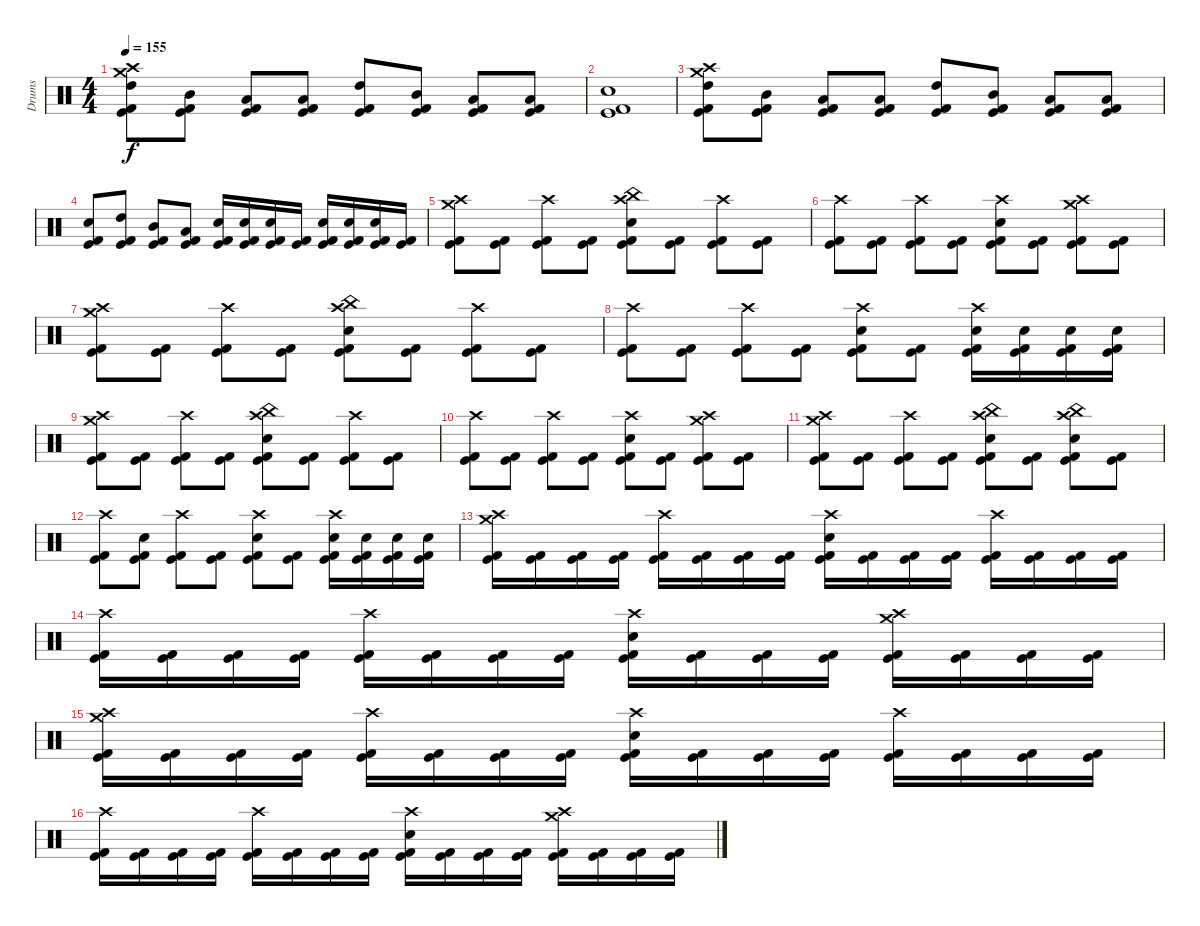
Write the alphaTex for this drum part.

\track ("Drums" "Drums") {instrument percussion}
\staff {score}
\articulation defaults
\ts (4 4)
\tempo 155
\clef neutral
\ks c
("Crash medium (hit)" "Crash high (hit)" "High Tom (hit)" "Kick (hit)" "Kick (hit) 2").8{dy f} ("Mid Tom (hit)" "Kick (hit)" "Kick (hit) 2").8 ("Low Tom (hit)" "Kick (hit)" "Kick (hit) 2").8 ("Low Floor Tom (hit)" "Kick (hit)" "Kick (hit) 2").8 ("High Tom (hit)" "Kick (hit)" "Kick (hit) 2").8 ("Mid Tom (hit)" "Kick (hit)" "Kick (hit) 2").8 ("Low Tom (hit)" "Kick (hit)" "Kick (hit) 2").8 ("Low Floor Tom (hit)" "Kick (hit)" "Kick (hit) 2").8 |
("Snare (hit) 2" "Kick (hit)" "Kick (hit) 2").1 |
("Crash medium (hit)" "Crash high (hit)" "High Tom (hit)" "Kick (hit)" "Kick (hit) 2").8 ("Mid Tom (hit)" "Kick (hit)" "Kick (hit) 2").8 ("Low Tom (hit)" "Kick (hit)" "Kick (hit) 2").8 ("Low Floor Tom (hit)" "Kick (hit)" "Kick (hit) 2").8 ("High Tom (hit)" "Kick (hit)" "Kick (hit) 2").8 ("Mid Tom (hit)" "Kick (hit)" "Kick (hit) 2").8 ("Low Tom (hit)" "Kick (hit)" "Kick (hit) 2").8 ("Low Floor Tom (hit)" "Kick (hit)" "Kick (hit) 2").8 |
("Snare (hit) 2" "Kick (hit)" "Kick (hit) 2").8 ("High Tom (hit)" "Kick (hit)" "Kick (hit) 2").8 ("Mid Tom (hit)" "Kick (hit)" "Kick (hit) 2").8 ("Low Tom (hit)" "Kick (hit)" "Kick (hit) 2").8 ("Snare (hit) 2" "Kick (hit)" "Kick (hit) 2").16 ("Snare (hit) 2" "Kick (hit)" "Kick (hit) 2").16 ("Snare (hit) 2" "Kick (hit)" "Kick (hit) 2").16 ("Kick (hit)" "Kick (hit) 2").16 ("Snare (hit) 2" "Kick (hit)" "Kick (hit) 2").16 ("Snare (hit) 2" "Kick (hit)" "Kick (hit) 2").16 ("Snare (hit) 2" "Kick (hit)" "Kick (hit) 2").16 ("Kick (hit)" "Kick (hit) 2").16 |
("Crash medium (hit)" "Crash high (hit)" "Kick (hit)" "Kick (hit) 2").8 ("Kick (hit)" "Kick (hit) 2").8 ("Crash high (hit)" "Kick (hit)" "Kick (hit) 2").8 ("Kick (hit)" "Kick (hit) 2").8 ("China (hit)" "Crash high (hit)" "Snare (hit) 2" "Kick (hit)" "Kick (hit) 2").8 ("Kick (hit)" "Kick (hit) 2").8 ("Crash high (hit)" "Kick (hit)" "Kick (hit) 2").8 ("Kick (hit)" "Kick (hit) 2").8 |
("Crash high (hit)" "Kick (hit)" "Kick (hit) 2").8 ("Kick (hit)" "Kick (hit) 2").8 ("Crash high (hit)" "Kick (hit)" "Kick (hit) 2").8 ("Kick (hit)" "Kick (hit) 2").8 ("Crash high (hit)" "Snare (hit) 2" "Kick (hit)" "Kick (hit) 2").8 ("Kick (hit)" "Kick (hit) 2").8 ("Crash medium (hit)" "Crash high (hit)" "Kick (hit)" "Kick (hit) 2").8 ("Kick (hit)" "Kick (hit) 2").8 |
("Crash medium (hit)" "Crash high (hit)" "Kick (hit)" "Kick (hit) 2").8 ("Kick (hit)" "Kick (hit) 2").8 ("Crash high (hit)" "Kick (hit)" "Kick (hit) 2").8 ("Kick (hit)" "Kick (hit) 2").8 ("China (hit)" "Crash high (hit)" "Snare (hit) 2" "Kick (hit)" "Kick (hit) 2").8 ("Kick (hit)" "Kick (hit) 2").8 ("Crash high (hit)" "Kick (hit)" "Kick (hit) 2").8 ("Kick (hit)" "Kick (hit) 2").8 |
("Crash high (hit)" "Kick (hit)" "Kick (hit) 2").8 ("Kick (hit)" "Kick (hit) 2").8 ("Crash high (hit)" "Kick (hit)" "Kick (hit) 2").8 ("Kick (hit)" "Kick (hit) 2").8 ("Crash high (hit)" "Snare (hit) 2" "Kick (hit)" "Kick (hit) 2").8 ("Kick (hit)" "Kick (hit) 2").8 ("Crash high (hit)" "Snare (hit) 2" "Kick (hit)" "Kick (hit) 2").16 ("Snare (hit) 2" "Kick (hit)" "Kick (hit) 2").16 ("Snare (hit) 2" "Kick (hit)" "Kick (hit) 2").16 ("Snare (hit) 2" "Kick (hit)" "Kick (hit) 2").16 |
("Crash medium (hit)" "Crash high (hit)" "Kick (hit)" "Kick (hit) 2").8 ("Kick (hit)" "Kick (hit) 2").8 ("Crash high (hit)" "Kick (hit)" "Kick (hit) 2").8 ("Kick (hit)" "Kick (hit) 2").8 ("China (hit)" "Crash high (hit)" "Snare (hit) 2" "Kick (hit)" "Kick (hit) 2").8 ("Kick (hit)" "Kick (hit) 2").8 ("Crash high (hit)" "Kick (hit)" "Kick (hit) 2").8 ("Kick (hit)" "Kick (hit) 2").8 |
("Crash high (hit)" "Kick (hit)" "Kick (hit) 2").8 ("Kick (hit)" "Kick (hit) 2").8 ("Crash high (hit)" "Kick (hit)" "Kick (hit) 2").8 ("Kick (hit)" "Kick (hit) 2").8 ("Crash high (hit)" "Snare (hit) 2" "Kick (hit)" "Kick (hit) 2").8 ("Kick (hit)" "Kick (hit) 2").8 ("Crash medium (hit)" "Crash high (hit)" "Kick (hit)" "Kick (hit) 2").8 ("Kick (hit)" "Kick (hit) 2").8 |
("Crash medium (hit)" "Crash high (hit)" "Kick (hit)" "Kick (hit) 2").8 ("Kick (hit)" "Kick (hit) 2").8 ("Crash high (hit)" "Kick (hit)" "Kick (hit) 2").8 ("Kick (hit)" "Kick (hit) 2").8 ("China (hit)" "Crash high (hit)" "Snare (hit) 2" "Kick (hit)" "Kick (hit) 2").8 ("Kick (hit)" "Kick (hit) 2").8 ("China (hit)" "Crash high (hit)" "Snare (hit) 2" "Kick (hit)" "Kick (hit) 2").8 ("Kick (hit)" "Kick (hit) 2").8 |
("Crash high (hit)" "Kick (hit)" "Kick (hit) 2").8 ("Snare (hit) 2" "Kick (hit)" "Kick (hit) 2").8 ("Crash high (hit)" "Kick (hit)" "Kick (hit) 2").8 ("Kick (hit)" "Kick (hit) 2").8 ("Crash high (hit)" "Snare (hit) 2" "Kick (hit)" "Kick (hit) 2").8 ("Kick (hit)" "Kick (hit) 2").8 ("Crash high (hit)" "Snare (hit) 2" "Kick (hit)" "Kick (hit) 2").16 ("Snare (hit) 2" "Kick (hit)" "Kick (hit) 2").16 ("Snare (hit) 2" "Kick (hit)" "Kick (hit) 2").16 ("Snare (hit) 2" "Kick (hit)" "Kick (hit) 2").16 |
("Crash medium (hit)" "Crash high (hit)" "Kick (hit)" "Kick (hit) 2").16 ("Kick (hit)" "Kick (hit) 2").16 ("Kick (hit)" "Kick (hit) 2").16 ("Kick (hit)" "Kick (hit) 2").16 ("Crash high (hit)" "Kick (hit)" "Kick (hit) 2").16 ("Kick (hit)" "Kick (hit) 2").16 ("Kick (hit)" "Kick (hit) 2").16 ("Kick (hit)" "Kick (hit) 2").16 ("Crash high (hit)" "Snare (hit) 2" "Kick (hit)" "Kick (hit) 2").16 ("Kick (hit)" "Kick (hit) 2").16 ("Kick (hit)" "Kick (hit) 2").16 ("Kick (hit)" "Kick (hit) 2").16 ("Crash high (hit)" "Kick (hit)" "Kick (hit) 2").16 ("Kick (hit)" "Kick (hit) 2").16 ("Kick (hit)" "Kick (hit) 2").16 ("Kick (hit)" "Kick (hit) 2").16 |
("Crash high (hit)" "Kick (hit)" "Kick (hit) 2").16 ("Kick (hit)" "Kick (hit) 2").16 ("Kick (hit)" "Kick (hit) 2").16 ("Kick (hit)" "Kick (hit) 2").16 ("Crash high (hit)" "Kick (hit)" "Kick (hit) 2").16 ("Kick (hit)" "Kick (hit) 2").16 ("Kick (hit)" "Kick (hit) 2").16 ("Kick (hit)" "Kick (hit) 2").16 ("Crash high (hit)" "Snare (hit) 2" "Kick (hit)" "Kick (hit) 2").16 ("Kick (hit)" "Kick (hit) 2").16 ("Kick (hit)" "Kick (hit) 2").16 ("Kick (hit)" "Kick (hit) 2").16 ("Crash medium (hit)" "Crash high (hit)" "Kick (hit)" "Kick (hit) 2").16 ("Kick (hit)" "Kick (hit) 2").16 ("Kick (hit)" "Kick (hit) 2").16 ("Kick (hit)" "Kick (hit) 2").16 |
("Crash medium (hit)" "Crash high (hit)" "Kick (hit)" "Kick (hit) 2").16 ("Kick (hit)" "Kick (hit) 2").16 ("Kick (hit)" "Kick (hit) 2").16 ("Kick (hit)" "Kick (hit) 2").16 ("Crash high (hit)" "Kick (hit)" "Kick (hit) 2").16 ("Kick (hit)" "Kick (hit) 2").16 ("Kick (hit)" "Kick (hit) 2").16 ("Kick (hit)" "Kick (hit) 2").16 ("Crash high (hit)" "Snare (hit) 2" "Kick (hit)" "Kick (hit) 2").16 ("Kick (hit)" "Kick (hit) 2").16 ("Kick (hit)" "Kick (hit) 2").16 ("Kick (hit)" "Kick (hit) 2").16 ("Crash high (hit)" "Kick (hit)" "Kick (hit) 2").16 ("Kick (hit)" "Kick (hit) 2").16 ("Kick (hit)" "Kick (hit) 2").16 ("Kick (hit)" "Kick (hit) 2").16 |
("Crash high (hit)" "Kick (hit)" "Kick (hit) 2").16 ("Kick (hit)" "Kick (hit) 2").16 ("Kick (hit)" "Kick (hit) 2").16 ("Kick (hit)" "Kick (hit) 2").16 ("Crash high (hit)" "Kick (hit)" "Kick (hit) 2").16 ("Kick (hit)" "Kick (hit) 2").16 ("Kick (hit)" "Kick (hit) 2").16 ("Kick (hit)" "Kick (hit) 2").16 ("Crash high (hit)" "Snare (hit) 2" "Kick (hit)" "Kick (hit) 2").16 ("Kick (hit)" "Kick (hit) 2").16 ("Kick (hit)" "Kick (hit) 2").16 ("Kick (hit)" "Kick (hit) 2").16 ("Crash medium (hit)" "Crash high (hit)" "Kick (hit)" "Kick (hit) 2").16 ("Kick (hit)" "Kick (hit) 2").16 ("Kick (hit)" "Kick (hit) 2").16 ("Kick (hit)" "Kick (hit) 2").16
